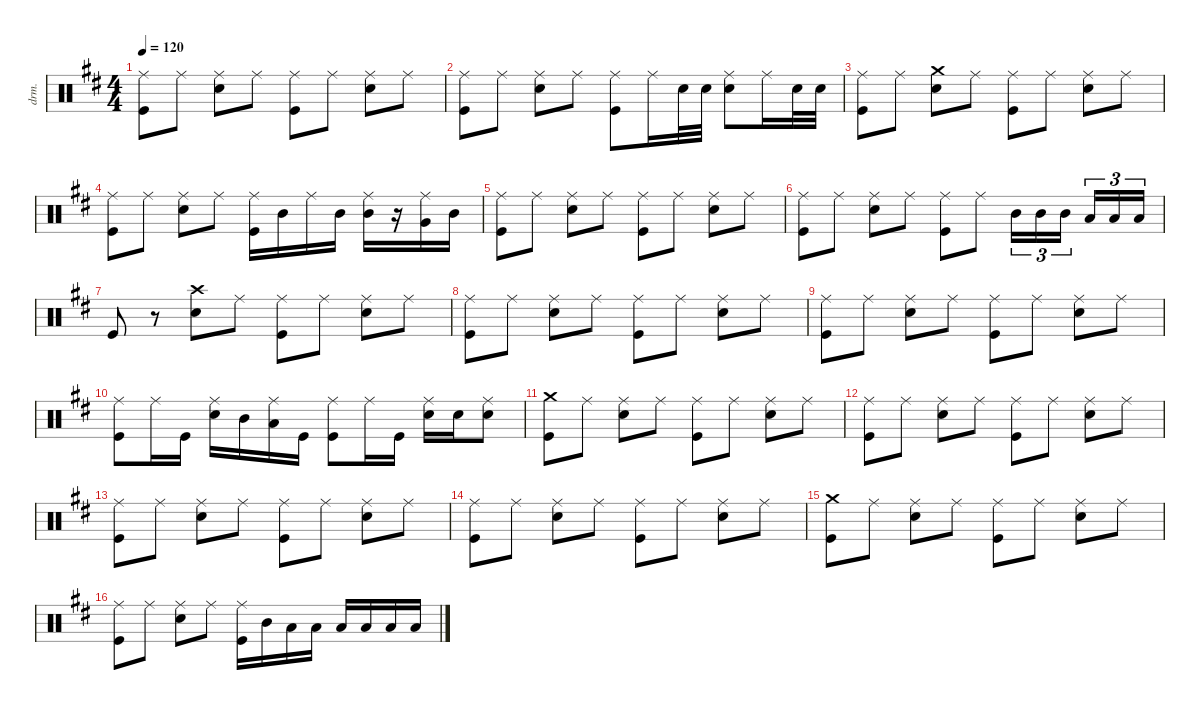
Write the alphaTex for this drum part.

\defaultSystemsLayout 4
\hideDynamics
\bracketExtendMode nobrackets
\otherSystemsTrackNameOrientation horizontal
\track ("Drums" "drm.") {instrument percussion}
\staff {score}
\articulation defaults
\ts (4 4)
\tempo 120
\clef neutral
\ks d
("Ride (middle)"{acc forcenatural} "Kick (hit)"{acc forcenatural}).8{dy f} "Ride (middle)"{acc forcenatural}.8 ("Ride (middle)"{acc forcenatural} "Snare (hit) 2"{acc forcenatural}).8 "Ride (middle)"{acc forcenatural}.8 ("Ride (middle)"{acc forcenatural} "Kick (hit)"{acc forcenatural}).8 "Ride (middle)"{acc forcenatural}.8 ("Ride (middle)"{acc forcenatural} "Snare (hit) 2"{acc forcenatural}).8 "Ride (middle)"{acc forcenatural}.8 |
("Ride (middle)"{acc forcenatural} "Kick (hit)"{acc forcenatural}).8 "Ride (middle)"{acc forcenatural}.8 ("Ride (middle)"{acc forcenatural} "Snare (hit) 2"{acc forcenatural}).8 "Ride (middle)"{acc forcenatural}.8 ("Ride (middle)"{acc forcenatural} "Kick (hit)"{acc forcenatural}).8 "Ride (middle)"{acc forcenatural}.16 "Snare (hit) 2"{acc forcenatural}.32 "Snare (hit) 2"{acc forcenatural}.32 ("Ride (middle)"{acc forcenatural} "Snare (hit) 2"{acc forcenatural}).8 "Ride (middle)"{acc forcenatural}.16 "Snare (hit) 2"{acc forcenatural}.32 "Snare (hit) 2"{acc forcenatural}.32 |
("Ride (middle)"{acc forcenatural} "Kick (hit)"{acc forcenatural}).8 "Ride (middle)"{acc forcenatural}.8 ("Crash medium (hit)"{acc forcenatural} "Snare (hit) 2"{acc forcenatural}).8 "Ride (middle)"{acc forcenatural}.8 ("Ride (middle)"{acc forcenatural} "Kick (hit)"{acc forcenatural}).8 "Ride (middle)"{acc forcenatural}.8 ("Ride (middle)"{acc forcenatural} "Snare (hit) 2"{acc forcenatural}).8 "Ride (middle)"{acc forcenatural}.8 |
("Ride (middle)"{acc forcenatural} "Kick (hit)"{acc forcenatural}).8 "Ride (middle)"{acc forcenatural}.8 ("Ride (middle)"{acc forcenatural} "Snare (hit) 2"{acc forcenatural}).8 "Ride (middle)"{acc forcenatural}.8 ("Ride (middle)"{acc forcenatural} "Kick (hit)"{acc forcenatural}).16 "Mid Tom (hit)"{acc forcenatural}.16 "Ride (middle)"{acc forcenatural}.16 "Mid Tom (hit)"{acc forcenatural}.16 ("Ride (middle)"{acc forcenatural} "Mid Tom (hit)"{acc forcenatural}).16 r.16 ("Ride (middle)"{acc forcenatural} "Very Low Tom (hit)"{acc forcenatural}).16 "Mid Tom (hit)"{acc forcenatural}.16 |
("Ride (middle)"{acc forcenatural} "Kick (hit)"{acc forcenatural}).8 "Ride (middle)"{acc forcenatural}.8 ("Ride (middle)"{acc forcenatural} "Snare (hit) 2"{acc forcenatural}).8 "Ride (middle)"{acc forcenatural}.8 ("Ride (middle)"{acc forcenatural} "Kick (hit)"{acc forcenatural}).8 "Ride (middle)"{acc forcenatural}.8 ("Ride (middle)"{acc forcenatural} "Snare (hit) 2"{acc forcenatural}).8 "Ride (middle)"{acc forcenatural}.8 |
("Ride (middle)"{acc forcenatural} "Kick (hit)"{acc forcenatural}).8 "Ride (middle)"{acc forcenatural}.8 ("Ride (middle)"{acc forcenatural} "Snare (hit) 2"{acc forcenatural}).8 "Ride (middle)"{acc forcenatural}.8 ("Ride (middle)"{acc forcenatural} "Kick (hit)"{acc forcenatural}).8 "Ride (middle)"{acc forcenatural}.8 "Mid Tom (hit)"{acc forcenatural}.16{tu (3 2)} "Mid Tom (hit)"{acc forcenatural}.16{tu (3 2)} "Mid Tom (hit)"{acc forcenatural}.16{tu (3 2)} "Low Tom (hit)"{acc forcenatural}.16{tu (3 2)} "Low Tom (hit)"{acc forcenatural}.16{tu (3 2)} "Low Tom (hit)"{acc forcenatural}.16{tu (3 2)} |
"Kick (hit)"{acc forcenatural}.8 r.8 ("Crash high (hit)"{acc forcenatural} "Snare (hit) 2"{acc forcenatural}).8 "Ride (middle)"{acc forcenatural}.8 ("Ride (middle)"{acc forcenatural} "Kick (hit)"{acc forcenatural}).8 "Ride (middle)"{acc forcenatural}.8 ("Ride (middle)"{acc forcenatural} "Snare (hit) 2"{acc forcenatural}).8 "Ride (middle)"{acc forcenatural}.8 |
("Ride (middle)"{acc forcenatural} "Kick (hit)"{acc forcenatural}).8 "Ride (middle)"{acc forcenatural}.8 ("Ride (middle)"{acc forcenatural} "Snare (hit) 2"{acc forcenatural}).8 "Ride (middle)"{acc forcenatural}.8 ("Ride (middle)"{acc forcenatural} "Kick (hit)"{acc forcenatural}).8 "Ride (middle)"{acc forcenatural}.8 ("Ride (middle)"{acc forcenatural} "Snare (hit) 2"{acc forcenatural}).8 "Ride (middle)"{acc forcenatural}.8 |
("Ride (middle)"{acc forcenatural} "Kick (hit)"{acc forcenatural}).8 "Ride (middle)"{acc forcenatural}.8 ("Ride (middle)"{acc forcenatural} "Snare (hit) 2"{acc forcenatural}).8 "Ride (middle)"{acc forcenatural}.8 ("Ride (middle)"{acc forcenatural} "Kick (hit)"{acc forcenatural}).8 "Ride (middle)"{acc forcenatural}.8 ("Ride (middle)"{acc forcenatural} "Snare (hit) 2"{acc forcenatural}).8 "Ride (middle)"{acc forcenatural}.8 |
("Ride (middle)"{acc forcenatural} "Kick (hit)"{acc forcenatural}).8 "Ride (middle)"{acc forcenatural}.16 "Kick (hit)"{acc forcenatural}.16 ("Ride (middle)"{acc forcenatural} "Snare (hit) 2"{acc forcenatural}).16 "Mid Tom (hit)"{acc forcenatural}.16 ("Ride (middle)"{acc forcenatural} "Low Tom (hit)"{acc forcenatural}).16 "Kick (hit)"{acc forcenatural}.16 ("Ride (middle)"{acc forcenatural} "Kick (hit)"{acc forcenatural}).8 "Ride (middle)"{acc forcenatural}.16 "Kick (hit)"{acc forcenatural}.16 ("Ride (middle)"{acc forcenatural} "Snare (hit) 2"{acc forcenatural}).16 "Snare (hit) 2"{acc forcenatural}.16 ("Ride (middle)"{acc forcenatural} "Snare (hit) 2"{acc forcenatural}).8 |
("Crash medium (hit)"{acc forcenatural} "Kick (hit)"{acc forcenatural}).8 "Ride (middle)"{acc forcenatural}.8 ("Ride (middle)"{acc forcenatural} "Snare (hit) 2"{acc forcenatural}).8 "Ride (middle)"{acc forcenatural}.8 ("Ride (middle)"{acc forcenatural} "Kick (hit)"{acc forcenatural}).8 "Ride (middle)"{acc forcenatural}.8 ("Ride (middle)"{acc forcenatural} "Snare (hit) 2"{acc forcenatural}).8 "Ride (middle)"{acc forcenatural}.8 |
("Ride (middle)"{acc forcenatural} "Kick (hit)"{acc forcenatural}).8 "Ride (middle)"{acc forcenatural}.8 ("Ride (middle)"{acc forcenatural} "Snare (hit) 2"{acc forcenatural}).8 "Ride (middle)"{acc forcenatural}.8 ("Ride (middle)"{acc forcenatural} "Kick (hit)"{acc forcenatural}).8 "Ride (middle)"{acc forcenatural}.8 ("Ride (middle)"{acc forcenatural} "Snare (hit) 2"{acc forcenatural}).8 "Ride (middle)"{acc forcenatural}.8 |
("Ride (middle)"{acc forcenatural} "Kick (hit)"{acc forcenatural}).8 "Ride (middle)"{acc forcenatural}.8 ("Ride (middle)"{acc forcenatural} "Snare (hit) 2"{acc forcenatural}).8 "Ride (middle)"{acc forcenatural}.8 ("Ride (middle)"{acc forcenatural} "Kick (hit)"{acc forcenatural}).8 "Ride (middle)"{acc forcenatural}.8 ("Ride (middle)"{acc forcenatural} "Snare (hit) 2"{acc forcenatural}).8 "Ride (middle)"{acc forcenatural}.8 |
("Ride (middle)"{acc forcenatural} "Kick (hit)"{acc forcenatural}).8 "Ride (middle)"{acc forcenatural}.8 ("Ride (middle)"{acc forcenatural} "Snare (hit) 2"{acc forcenatural}).8 "Ride (middle)"{acc forcenatural}.8 ("Ride (middle)"{acc forcenatural} "Kick (hit)"{acc forcenatural}).8 "Ride (middle)"{acc forcenatural}.8 ("Ride (middle)"{acc forcenatural} "Snare (hit) 2"{acc forcenatural}).8 "Ride (middle)"{acc forcenatural}.8 |
("Crash medium (hit)"{acc forcenatural} "Kick (hit)"{acc forcenatural}).8 "Ride (middle)"{acc forcenatural}.8 ("Ride (middle)"{acc forcenatural} "Snare (hit) 2"{acc forcenatural}).8 "Ride (middle)"{acc forcenatural}.8 ("Ride (middle)"{acc forcenatural} "Kick (hit)"{acc forcenatural}).8 "Ride (middle)"{acc forcenatural}.8 ("Ride (middle)"{acc forcenatural} "Snare (hit) 2"{acc forcenatural}).8 "Ride (middle)"{acc forcenatural}.8 |
("Ride (middle)"{acc forcenatural} "Kick (hit)"{acc forcenatural}).8 "Ride (middle)"{acc forcenatural}.8 ("Ride (middle)"{acc forcenatural} "Snare (hit) 2"{acc forcenatural}).8 "Ride (middle)"{acc forcenatural}.8 ("Ride (middle)"{acc forcenatural} "Kick (hit)"{acc forcenatural}).16 "Mid Tom (hit)"{acc forcenatural}.16 "Low Tom (hit)"{acc forcenatural}.16 "Low Tom (hit)"{acc forcenatural}.16 "Low Tom (hit)"{acc forcenatural}.16 "Low Tom (hit)"{acc forcenatural}.16 "Low Tom (hit)"{acc forcenatural}.16 "Low Tom (hit)"{acc forcenatural}.16
